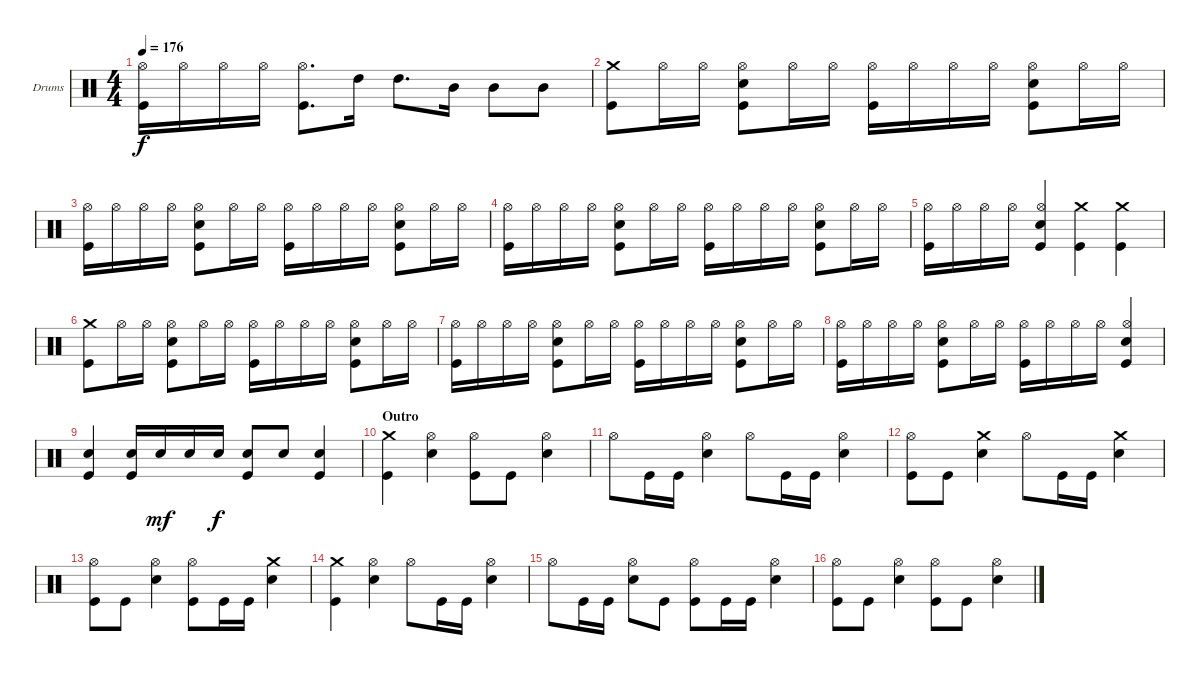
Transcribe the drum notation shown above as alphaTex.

\bracketExtendMode groupsimilarinstruments
\firstSystemTrackNameOrientation horizontal
\otherSystemsTrackNameOrientation horizontal
\track ("Drums" "Drums") {instrument percussion}
\staff {score}
\articulation defaults
\ts (4 4)
\tempo 176
\clef neutral
\ks c
("Kick (hit)" "Hi-Hat (open)").16{dy f} "Hi-Hat (open)".16 "Hi-Hat (open)".16 "Hi-Hat (open)".16 ("Kick (hit)" "Hi-Hat (open)").8{d} "High Tom (hit)".16 "High Tom (hit)".8{d} "Mid Tom (hit)".16 "Mid Tom (hit)".8 "Mid Tom (hit)".8 |
("Crash medium (hit)" "Kick (hit)").8 "Hi-Hat (open)".16 "Hi-Hat (open)".16 ("Snare (hit) 2" "Kick (hit)" "Hi-Hat (open)").8 "Hi-Hat (open)".16 "Hi-Hat (open)".16 ("Kick (hit)" "Hi-Hat (open)").16 "Hi-Hat (open)".16 "Hi-Hat (open)".16 "Hi-Hat (open)".16 ("Snare (hit) 2" "Kick (hit)" "Hi-Hat (open)").8 "Hi-Hat (open)".16 "Hi-Hat (open)".16 |
("Kick (hit)" "Hi-Hat (open)").16 "Hi-Hat (open)".16 "Hi-Hat (open)".16 "Hi-Hat (open)".16 ("Snare (hit) 2" "Kick (hit)" "Hi-Hat (open)").8 "Hi-Hat (open)".16 "Hi-Hat (open)".16 ("Kick (hit)" "Hi-Hat (open)").16 "Hi-Hat (open)".16 "Hi-Hat (open)".16 "Hi-Hat (open)".16 ("Snare (hit) 2" "Kick (hit)" "Hi-Hat (open)").8 "Hi-Hat (open)".16 "Hi-Hat (open)".16 |
("Kick (hit)" "Hi-Hat (open)").16 "Hi-Hat (open)".16 "Hi-Hat (open)".16 "Hi-Hat (open)".16 ("Snare (hit) 2" "Kick (hit)" "Hi-Hat (open)").8 "Hi-Hat (open)".16 "Hi-Hat (open)".16 ("Kick (hit)" "Hi-Hat (open)").16 "Hi-Hat (open)".16 "Hi-Hat (open)".16 "Hi-Hat (open)".16 ("Snare (hit) 2" "Kick (hit)" "Hi-Hat (open)").8 "Hi-Hat (open)".16 "Hi-Hat (open)".16 |
("Kick (hit)" "Hi-Hat (open)").16 "Hi-Hat (open)".16 "Hi-Hat (open)".16 "Hi-Hat (open)".16 ("Snare (hit) 2" "Kick (hit)" "Hi-Hat (open)").4 ("Crash medium (hit)" "Kick (hit)").4 ("Crash medium (hit)" "Kick (hit)").4 |
("Crash medium (hit)" "Kick (hit)").8 "Hi-Hat (open)".16 "Hi-Hat (open)".16 ("Snare (hit) 2" "Kick (hit)" "Hi-Hat (open)").8 "Hi-Hat (open)".16 "Hi-Hat (open)".16 ("Kick (hit)" "Hi-Hat (open)").16 "Hi-Hat (open)".16 "Hi-Hat (open)".16 "Hi-Hat (open)".16 ("Snare (hit) 2" "Kick (hit)" "Hi-Hat (open)").8 "Hi-Hat (open)".16 "Hi-Hat (open)".16 |
("Kick (hit)" "Hi-Hat (open)").16 "Hi-Hat (open)".16 "Hi-Hat (open)".16 "Hi-Hat (open)".16 ("Snare (hit) 2" "Kick (hit)" "Hi-Hat (open)").8 "Hi-Hat (open)".16 "Hi-Hat (open)".16 ("Kick (hit)" "Hi-Hat (open)").16 "Hi-Hat (open)".16 "Hi-Hat (open)".16 "Hi-Hat (open)".16 ("Snare (hit) 2" "Kick (hit)" "Hi-Hat (open)").8 "Hi-Hat (open)".16 "Hi-Hat (open)".16 |
("Kick (hit)" "Hi-Hat (open)").16 "Hi-Hat (open)".16 "Hi-Hat (open)".16 "Hi-Hat (open)".16 ("Snare (hit) 2" "Kick (hit)" "Hi-Hat (open)").8 "Hi-Hat (open)".16 "Hi-Hat (open)".16 ("Kick (hit)" "Hi-Hat (open)").16 "Hi-Hat (open)".16 "Hi-Hat (open)".16 "Hi-Hat (open)".16 ("Snare (hit) 2" "Kick (hit)" "Hi-Hat (open)").4 |
("Snare (hit) 2" "Kick (hit)").4 ("Snare (hit) 2" "Kick (hit)").16 "Snare (hit) 2".16{dy mf} "Snare (hit) 2".16 "Snare (hit) 2".16{dy f} ("Snare (hit) 2" "Kick (hit)").8 "Snare (hit) 2".8 ("Snare (hit) 2" "Kick (hit)").4 |
\section ("" "Outro")
("Crash medium (hit)" "Kick (hit)").4 ("Hi-Hat (open)" "Snare (hit) 2").4 ("Hi-Hat (open)" "Kick (hit)").8 "Kick (hit)".8 ("Hi-Hat (open)" "Snare (hit) 2").4 |
"Hi-Hat (open)".8 "Kick (hit)".16 "Kick (hit)".16 ("Hi-Hat (open)" "Snare (hit) 2").4 "Hi-Hat (open)".8 "Kick (hit)".16 "Kick (hit)".16 ("Hi-Hat (open)" "Snare (hit) 2").4 |
("Hi-Hat (open)" "Kick (hit)").8 "Kick (hit)".8 ("Crash medium (hit)" "Snare (hit) 2").4 "Hi-Hat (open)".8 "Kick (hit)".16 "Kick (hit)".16 ("Crash medium (hit)" "Snare (hit) 2").4 |
("Hi-Hat (open)" "Kick (hit)").8 "Kick (hit)".8 ("Hi-Hat (open)" "Snare (hit) 2").4 ("Hi-Hat (open)" "Kick (hit)").8 "Kick (hit)".16 "Kick (hit)".16 ("Crash medium (hit)" "Snare (hit) 2").4 |
("Crash medium (hit)" "Kick (hit)").4 ("Hi-Hat (open)" "Snare (hit) 2").4 "Hi-Hat (open)".8 "Kick (hit)".16 "Kick (hit)".16 ("Hi-Hat (open)" "Snare (hit) 2").4 |
"Hi-Hat (open)".8 "Kick (hit)".16 "Kick (hit)".16 ("Hi-Hat (open)" "Snare (hit) 2").8 "Kick (hit)".8 ("Hi-Hat (open)" "Kick (hit)").8 "Kick (hit)".16 "Kick (hit)".16 ("Hi-Hat (open)" "Snare (hit) 2").4 |
("Hi-Hat (open)" "Kick (hit)").8 "Kick (hit)".8 ("Hi-Hat (open)" "Snare (hit) 2").4 ("Hi-Hat (open)" "Kick (hit)").8 "Kick (hit)".8 ("Hi-Hat (open)" "Snare (hit) 2").4
